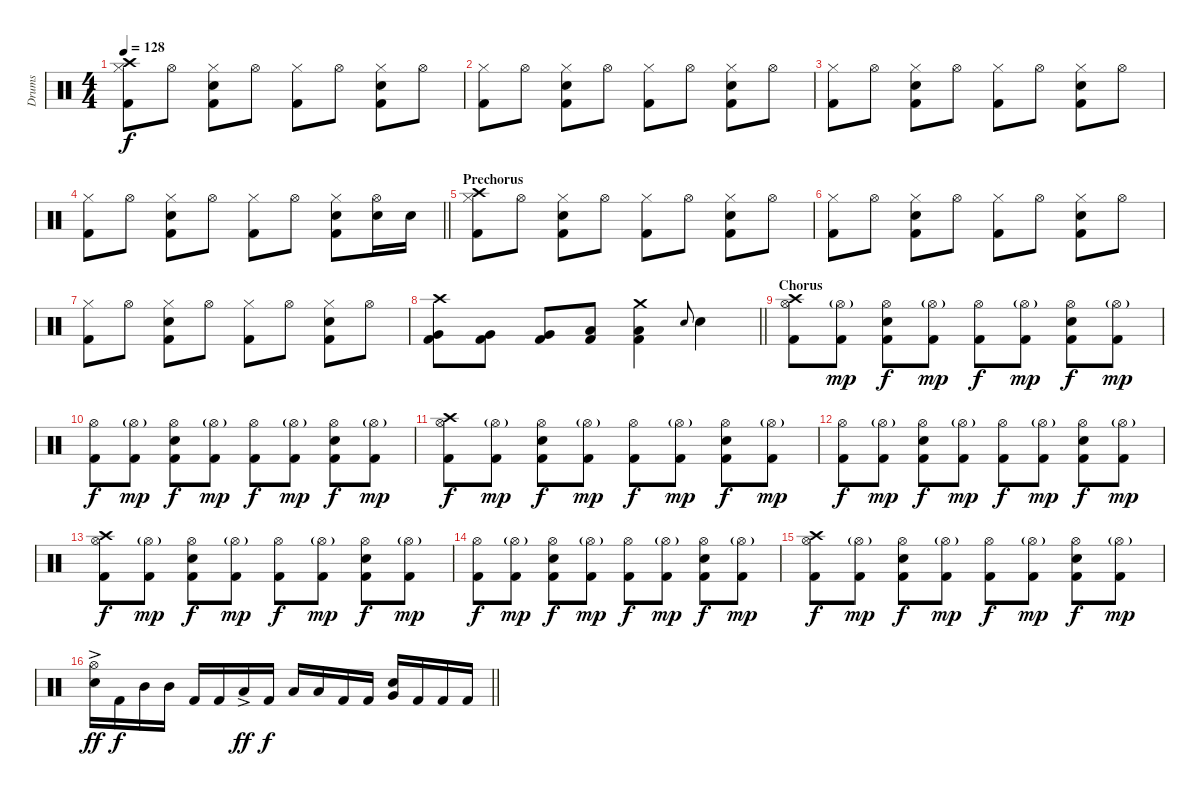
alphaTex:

\track ("Drums" "Drums") {instrument percussion}
\staff {score}
\articulation defaults
\ts (4 4)
\tempo 128
\clef neutral
\ks c
("Crash high (hit)" "Hi-Hat (closed)" "Kick (hit) 2").8{dy f} "Hi-Hat (open)".8 ("Hi-Hat (closed)" "Snare (hit) 2" "Kick (hit) 2").8 "Hi-Hat (open)".8 ("Hi-Hat (closed)" "Kick (hit) 2").8 "Hi-Hat (open)".8 ("Hi-Hat (closed)" "Snare (hit) 2" "Kick (hit) 2").8 "Hi-Hat (open)".8 |
("Hi-Hat (closed)" "Kick (hit) 2").8 "Hi-Hat (open)".8 ("Hi-Hat (closed)" "Snare (hit) 2" "Kick (hit) 2").8 "Hi-Hat (open)".8 ("Hi-Hat (closed)" "Kick (hit) 2").8 "Hi-Hat (open)".8 ("Hi-Hat (closed)" "Snare (hit) 2" "Kick (hit) 2").8 "Hi-Hat (open)".8 |
("Hi-Hat (closed)" "Kick (hit) 2").8 "Hi-Hat (open)".8 ("Hi-Hat (closed)" "Snare (hit) 2" "Kick (hit) 2").8 "Hi-Hat (open)".8 ("Hi-Hat (closed)" "Kick (hit) 2").8 "Hi-Hat (open)".8 ("Hi-Hat (closed)" "Snare (hit) 2" "Kick (hit) 2").8 "Hi-Hat (open)".8 |
\barLineRight lightlight
("Hi-Hat (closed)" "Kick (hit) 2").8 "Hi-Hat (open)".8 ("Hi-Hat (closed)" "Snare (hit) 2" "Kick (hit) 2").8 "Hi-Hat (open)".8 ("Hi-Hat (closed)" "Kick (hit) 2").8 "Hi-Hat (open)".8 ("Hi-Hat (closed)" "Snare (hit) 2" "Kick (hit) 2").8 ("Hi-Hat (open)" "Snare (hit) 2").16 "Snare (hit) 2".16 |
\section ("" "Prechorus")
("Crash high (hit)" "Hi-Hat (closed)" "Kick (hit) 2").8 "Hi-Hat (open)".8 ("Hi-Hat (closed)" "Snare (hit) 2" "Kick (hit) 2").8 "Hi-Hat (open)".8 ("Hi-Hat (closed)" "Kick (hit) 2").8 "Hi-Hat (open)".8 ("Hi-Hat (closed)" "Snare (hit) 2" "Kick (hit) 2").8 "Hi-Hat (open)".8 |
("Hi-Hat (closed)" "Kick (hit) 2").8 "Hi-Hat (open)".8 ("Hi-Hat (closed)" "Snare (hit) 2" "Kick (hit) 2").8 "Hi-Hat (open)".8 ("Hi-Hat (closed)" "Kick (hit) 2").8 "Hi-Hat (open)".8 ("Hi-Hat (closed)" "Snare (hit) 2" "Kick (hit) 2").8 "Hi-Hat (open)".8 |
("Hi-Hat (closed)" "Kick (hit) 2").8 "Hi-Hat (open)".8 ("Hi-Hat (closed)" "Snare (hit) 2" "Kick (hit) 2").8 "Hi-Hat (open)".8 ("Hi-Hat (closed)" "Kick (hit) 2").8 "Hi-Hat (open)".8 ("Hi-Hat (closed)" "Snare (hit) 2" "Kick (hit) 2").8 "Hi-Hat (open)".8 |
\barLineRight lightlight
("Crash high (hit)" "Very Low Tom (hit)" "Kick (hit) 2").8 ("Very Low Tom (hit)" "Kick (hit) 2").8 ("Very Low Tom (hit)" "Kick (hit) 2").8 ("Low Floor Tom (hit)" "Kick (hit) 2").8 ("Crash medium (hit)" "Low Floor Tom (hit)" "Kick (hit) 2").4 "Snare (hit) 2".8{gr onbeat} "Snare (hit) 2".4 |
\section ("" "Chorus")
("Crash high (hit)" "Hi-Hat (open)" "Kick (hit) 2").8 ("Hi-Hat (open)"{g} "Kick (hit) 2").8{dy mp} ("Hi-Hat (open)" "Snare (hit) 2" "Kick (hit) 2").8{dy f} ("Hi-Hat (open)"{g} "Kick (hit) 2").8{dy mp} ("Hi-Hat (open)" "Kick (hit) 2").8{dy f} ("Hi-Hat (open)"{g} "Kick (hit) 2").8{dy mp} ("Hi-Hat (open)" "Snare (hit) 2" "Kick (hit) 2").8{dy f} ("Hi-Hat (open)"{g} "Kick (hit) 2").8{dy mp} |
("Hi-Hat (open)" "Kick (hit) 2").8{dy f} ("Hi-Hat (open)"{g} "Kick (hit) 2").8{dy mp} ("Hi-Hat (open)" "Snare (hit) 2" "Kick (hit) 2").8{dy f} ("Hi-Hat (open)"{g} "Kick (hit) 2").8{dy mp} ("Hi-Hat (open)" "Kick (hit) 2").8{dy f} ("Hi-Hat (open)"{g} "Kick (hit) 2").8{dy mp} ("Hi-Hat (open)" "Snare (hit) 2" "Kick (hit) 2").8{dy f} ("Hi-Hat (open)"{g} "Kick (hit) 2").8{dy mp} |
("Crash high (hit)" "Hi-Hat (open)" "Kick (hit) 2").8{dy f} ("Hi-Hat (open)"{g} "Kick (hit) 2").8{dy mp} ("Hi-Hat (open)" "Snare (hit) 2" "Kick (hit) 2").8{dy f} ("Hi-Hat (open)"{g} "Kick (hit) 2").8{dy mp} ("Hi-Hat (open)" "Kick (hit) 2").8{dy f} ("Hi-Hat (open)"{g} "Kick (hit) 2").8{dy mp} ("Hi-Hat (open)" "Snare (hit) 2" "Kick (hit) 2").8{dy f} ("Hi-Hat (open)"{g} "Kick (hit) 2").8{dy mp} |
("Hi-Hat (open)" "Kick (hit) 2").8{dy f} ("Hi-Hat (open)"{g} "Kick (hit) 2").8{dy mp} ("Hi-Hat (open)" "Snare (hit) 2" "Kick (hit) 2").8{dy f} ("Hi-Hat (open)"{g} "Kick (hit) 2").8{dy mp} ("Hi-Hat (open)" "Kick (hit) 2").8{dy f} ("Hi-Hat (open)"{g} "Kick (hit) 2").8{dy mp} ("Hi-Hat (open)" "Snare (hit) 2" "Kick (hit) 2").8{dy f} ("Hi-Hat (open)"{g} "Kick (hit) 2").8{dy mp} |
("Crash high (hit)" "Hi-Hat (open)" "Kick (hit) 2").8{dy f} ("Hi-Hat (open)"{g} "Kick (hit) 2").8{dy mp} ("Hi-Hat (open)" "Snare (hit) 2" "Kick (hit) 2").8{dy f} ("Hi-Hat (open)"{g} "Kick (hit) 2").8{dy mp} ("Hi-Hat (open)" "Kick (hit) 2").8{dy f} ("Hi-Hat (open)"{g} "Kick (hit) 2").8{dy mp} ("Hi-Hat (open)" "Snare (hit) 2" "Kick (hit) 2").8{dy f} ("Hi-Hat (open)"{g} "Kick (hit) 2").8{dy mp} |
("Hi-Hat (open)" "Kick (hit) 2").8{dy f} ("Hi-Hat (open)"{g} "Kick (hit) 2").8{dy mp} ("Hi-Hat (open)" "Snare (hit) 2" "Kick (hit) 2").8{dy f} ("Hi-Hat (open)"{g} "Kick (hit) 2").8{dy mp} ("Hi-Hat (open)" "Kick (hit) 2").8{dy f} ("Hi-Hat (open)"{g} "Kick (hit) 2").8{dy mp} ("Hi-Hat (open)" "Snare (hit) 2" "Kick (hit) 2").8{dy f} ("Hi-Hat (open)"{g} "Kick (hit) 2").8{dy mp} |
("Crash high (hit)" "Hi-Hat (open)" "Kick (hit) 2").8{dy f} ("Hi-Hat (open)"{g} "Kick (hit) 2").8{dy mp} ("Hi-Hat (open)" "Snare (hit) 2" "Kick (hit) 2").8{dy f} ("Hi-Hat (open)"{g} "Kick (hit) 2").8{dy mp} ("Hi-Hat (open)" "Kick (hit) 2").8{dy f} ("Hi-Hat (open)"{g} "Kick (hit) 2").8{dy mp} ("Hi-Hat (open)" "Snare (hit) 2" "Kick (hit) 2").8{dy f} ("Hi-Hat (open)"{g} "Kick (hit) 2").8{dy mp} |
\barLineRight lightlight
("Hi-Hat (open)" "Snare (hit) 2"{ac}).16{dy ff} "Kick (hit) 2".16{dy f} "Mid Tom (hit)".16 "Mid Tom (hit)".16 "Kick (hit) 2".16 "Kick (hit) 2".16 "Low Tom (hit)"{ac}.16{dy ff} "Kick (hit) 2".16{dy f} "Low Tom (hit)".16 "Low Tom (hit)".16 "Kick (hit) 2".16 "Kick (hit) 2".16 ("Very Low Tom (hit)" "Snare (hit) 2").16 "Kick (hit) 2".16 "Kick (hit) 2".16 "Kick (hit) 2".16
